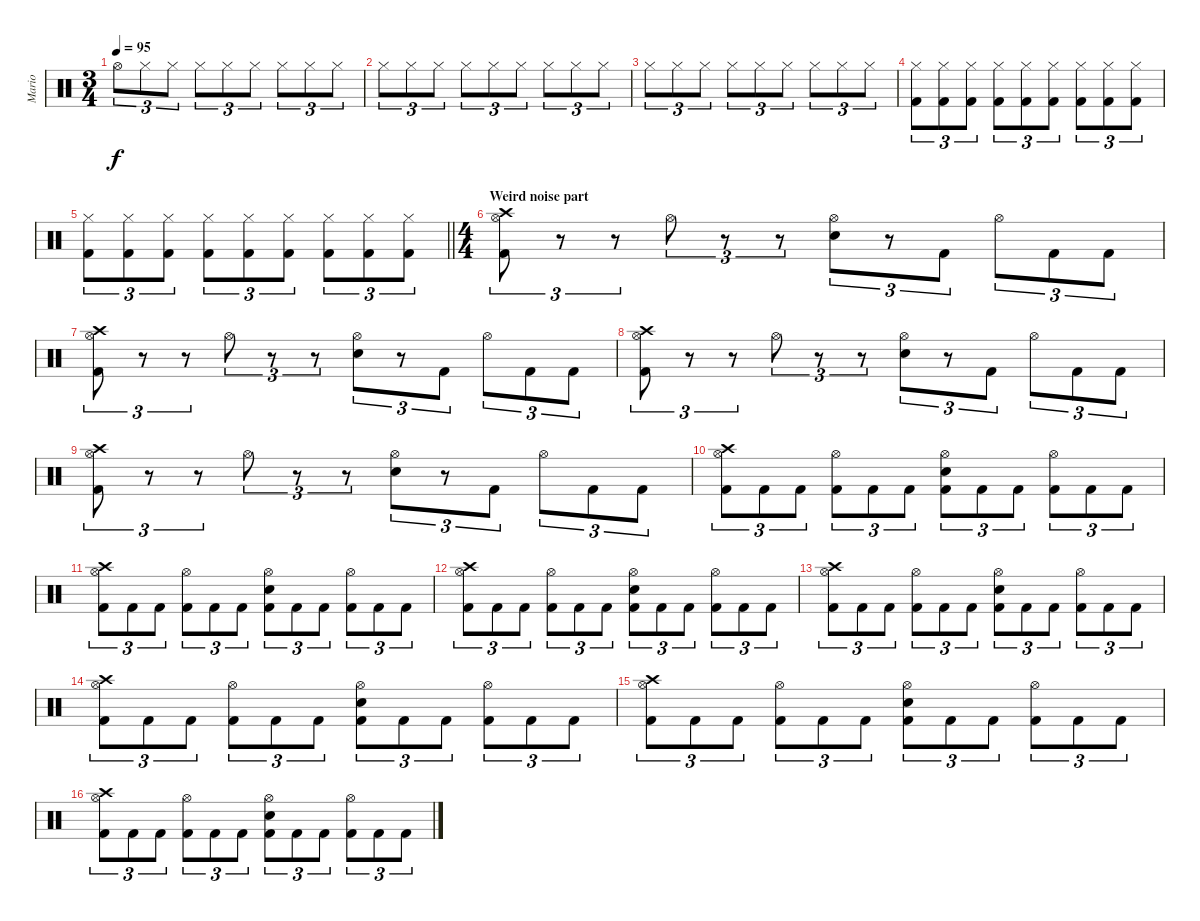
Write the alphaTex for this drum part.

\track ("Mario" "Mario") {instrument percussion}
\staff {score}
\articulation defaults
\ts (3 4)
\tempo 95
\clef neutral
\ks c "Hi-Hat (open)".8{tu (3 2) dy f} "Hi-Hat (closed)".8{tu (3 2)} "Hi-Hat (closed)".8{tu (3 2)} "Hi-Hat (closed)".8{tu (3 2)} "Hi-Hat (closed)".8{tu (3 2)} "Hi-Hat (closed)".8{tu (3 2)} "Hi-Hat (closed)".8{tu (3 2)} "Hi-Hat (closed)".8{tu (3 2)} "Hi-Hat (closed)".8{tu (3 2)}
|
"Hi-Hat (closed)".8{tu (3 2)} "Hi-Hat (closed)".8{tu (3 2)} "Hi-Hat (closed)".8{tu (3 2)} "Hi-Hat (closed)".8{tu (3 2)} "Hi-Hat (closed)".8{tu (3 2)} "Hi-Hat (closed)".8{tu (3 2)} "Hi-Hat (closed)".8{tu (3 2)} "Hi-Hat (closed)".8{tu (3 2)} "Hi-Hat (closed)".8{tu (3 2)} |
"Hi-Hat (closed)".8{tu (3 2)} "Hi-Hat (closed)".8{tu (3 2)} "Hi-Hat (closed)".8{tu (3 2)} "Hi-Hat (closed)".8{tu (3 2)} "Hi-Hat (closed)".8{tu (3 2)} "Hi-Hat (closed)".8{tu (3 2)} "Hi-Hat (closed)".8{tu (3 2)} "Hi-Hat (closed)".8{tu (3 2)} "Hi-Hat (closed)".8{tu (3 2)} |
("Hi-Hat (closed)" "Kick (hit) 2").8{tu (3 2)} ("Hi-Hat (closed)" "Kick (hit) 2").8{tu (3 2)} ("Hi-Hat (closed)" "Kick (hit) 2").8{tu (3 2)} ("Hi-Hat (closed)" "Kick (hit) 2").8{tu (3 2)} ("Hi-Hat (closed)" "Kick (hit) 2").8{tu (3 2)} ("Hi-Hat (closed)" "Kick (hit) 2").8{tu (3 2)} ("Hi-Hat (closed)" "Kick (hit) 2").8{tu (3 2)} ("Hi-Hat (closed)" "Kick (hit) 2").8{tu (3 2)} ("Hi-Hat (closed)" "Kick (hit) 2").8{tu (3 2)} |
\barLineRight lightlight
("Hi-Hat (closed)" "Kick (hit) 2").8{tu (3 2)} ("Hi-Hat (closed)" "Kick (hit) 2").8{tu (3 2)} ("Hi-Hat (closed)" "Kick (hit) 2").8{tu (3 2)} ("Hi-Hat (closed)" "Kick (hit) 2").8{tu (3 2)} ("Hi-Hat (closed)" "Kick (hit) 2").8{tu (3 2)} ("Hi-Hat (closed)" "Kick (hit) 2").8{tu (3 2)} ("Hi-Hat (closed)" "Kick (hit) 2").8{tu (3 2)} ("Hi-Hat (closed)" "Kick (hit) 2").8{tu (3 2)} ("Hi-Hat (closed)" "Kick (hit) 2").8{tu (3 2)} |
\ts (4 4)
\section ("" "Weird noise part")
("Crash high (hit)" "Hi-Hat (open)" "Kick (hit) 2").8{tu (3 2)} r.8{tu (3 2)} r.8{tu (3 2)} "Hi-Hat (open)".8{tu (3 2)} r.8{tu (3 2)} r.8{tu (3 2)} ("Hi-Hat (open)" "Electric Snare (hit)").8{tu (3 2)} r.8{tu (3 2)} "Kick (hit) 2".8{tu (3 2)} "Hi-Hat (open)".8{tu (3 2)} "Kick (hit) 2".8{tu (3 2)} "Kick (hit) 2".8{tu (3 2)} |
("Crash high (hit)" "Hi-Hat (open)" "Kick (hit) 2").8{tu (3 2)} r.8{tu (3 2)} r.8{tu (3 2)} "Hi-Hat (open)".8{tu (3 2)} r.8{tu (3 2)} r.8{tu (3 2)} ("Hi-Hat (open)" "Electric Snare (hit)").8{tu (3 2)} r.8{tu (3 2)} "Kick (hit) 2".8{tu (3 2)} "Hi-Hat (open)".8{tu (3 2)} "Kick (hit) 2".8{tu (3 2)} "Kick (hit) 2".8{tu (3 2)} |
("Crash high (hit)" "Hi-Hat (open)" "Kick (hit) 2").8{tu (3 2)} r.8{tu (3 2)} r.8{tu (3 2)} "Hi-Hat (open)".8{tu (3 2)} r.8{tu (3 2)} r.8{tu (3 2)} ("Hi-Hat (open)" "Electric Snare (hit)").8{tu (3 2)} r.8{tu (3 2)} "Kick (hit) 2".8{tu (3 2)} "Hi-Hat (open)".8{tu (3 2)} "Kick (hit) 2".8{tu (3 2)} "Kick (hit) 2".8{tu (3 2)} |
("Crash high (hit)" "Hi-Hat (open)" "Kick (hit) 2").8{tu (3 2)} r.8{tu (3 2)} r.8{tu (3 2)} "Hi-Hat (open)".8{tu (3 2)} r.8{tu (3 2)} r.8{tu (3 2)} ("Hi-Hat (open)" "Electric Snare (hit)").8{tu (3 2)} r.8{tu (3 2)} "Kick (hit) 2".8{tu (3 2)} "Hi-Hat (open)".8{tu (3 2)} "Kick (hit) 2".8{tu (3 2)} "Kick (hit) 2".8{tu (3 2)} |
("Crash high (hit)" "Hi-Hat (open)" "Kick (hit) 2").8{tu (3 2)} "Kick (hit) 2".8{tu (3 2)} "Kick (hit) 2".8{tu (3 2)} ("Hi-Hat (open)" "Kick (hit) 2").8{tu (3 2)} "Kick (hit) 2".8{tu (3 2)} "Kick (hit) 2".8{tu (3 2)} ("Hi-Hat (open)" "Electric Snare (hit)" "Kick (hit) 2").8{tu (3 2)} "Kick (hit) 2".8{tu (3 2)} "Kick (hit) 2".8{tu (3 2)} ("Hi-Hat (open)" "Kick (hit) 2").8{tu (3 2)} "Kick (hit) 2".8{tu (3 2)} "Kick (hit) 2".8{tu (3 2)} |
("Crash high (hit)" "Hi-Hat (open)" "Kick (hit) 2").8{tu (3 2)} "Kick (hit) 2".8{tu (3 2)} "Kick (hit) 2".8{tu (3 2)} ("Hi-Hat (open)" "Kick (hit) 2").8{tu (3 2)} "Kick (hit) 2".8{tu (3 2)} "Kick (hit) 2".8{tu (3 2)} ("Hi-Hat (open)" "Electric Snare (hit)" "Kick (hit) 2").8{tu (3 2)} "Kick (hit) 2".8{tu (3 2)} "Kick (hit) 2".8{tu (3 2)} ("Hi-Hat (open)" "Kick (hit) 2").8{tu (3 2)} "Kick (hit) 2".8{tu (3 2)} "Kick (hit) 2".8{tu (3 2)} |
("Crash high (hit)" "Hi-Hat (open)" "Kick (hit) 2").8{tu (3 2)} "Kick (hit) 2".8{tu (3 2)} "Kick (hit) 2".8{tu (3 2)} ("Hi-Hat (open)" "Kick (hit) 2").8{tu (3 2)} "Kick (hit) 2".8{tu (3 2)} "Kick (hit) 2".8{tu (3 2)} ("Hi-Hat (open)" "Electric Snare (hit)" "Kick (hit) 2").8{tu (3 2)} "Kick (hit) 2".8{tu (3 2)} "Kick (hit) 2".8{tu (3 2)} ("Hi-Hat (open)" "Kick (hit) 2").8{tu (3 2)} "Kick (hit) 2".8{tu (3 2)} "Kick (hit) 2".8{tu (3 2)} |
("Crash high (hit)" "Hi-Hat (open)" "Kick (hit) 2").8{tu (3 2)} "Kick (hit) 2".8{tu (3 2)} "Kick (hit) 2".8{tu (3 2)} ("Hi-Hat (open)" "Kick (hit) 2").8{tu (3 2)} "Kick (hit) 2".8{tu (3 2)} "Kick (hit) 2".8{tu (3 2)} ("Hi-Hat (open)" "Electric Snare (hit)" "Kick (hit) 2").8{tu (3 2)} "Kick (hit) 2".8{tu (3 2)} "Kick (hit) 2".8{tu (3 2)} ("Hi-Hat (open)" "Kick (hit) 2").8{tu (3 2)} "Kick (hit) 2".8{tu (3 2)} "Kick (hit) 2".8{tu (3 2)} |
("Crash high (hit)" "Hi-Hat (open)" "Kick (hit) 2").8{tu (3 2)} "Kick (hit) 2".8{tu (3 2)} "Kick (hit) 2".8{tu (3 2)} ("Hi-Hat (open)" "Kick (hit) 2").8{tu (3 2)} "Kick (hit) 2".8{tu (3 2)} "Kick (hit) 2".8{tu (3 2)} ("Hi-Hat (open)" "Electric Snare (hit)" "Kick (hit) 2").8{tu (3 2)} "Kick (hit) 2".8{tu (3 2)} "Kick (hit) 2".8{tu (3 2)} ("Hi-Hat (open)" "Kick (hit) 2").8{tu (3 2)} "Kick (hit) 2".8{tu (3 2)} "Kick (hit) 2".8{tu (3 2)} |
("Crash high (hit)" "Hi-Hat (open)" "Kick (hit) 2").8{tu (3 2)} "Kick (hit) 2".8{tu (3 2)} "Kick (hit) 2".8{tu (3 2)} ("Hi-Hat (open)" "Kick (hit) 2").8{tu (3 2)} "Kick (hit) 2".8{tu (3 2)} "Kick (hit) 2".8{tu (3 2)} ("Hi-Hat (open)" "Electric Snare (hit)" "Kick (hit) 2").8{tu (3 2)} "Kick (hit) 2".8{tu (3 2)} "Kick (hit) 2".8{tu (3 2)} ("Hi-Hat (open)" "Kick (hit) 2").8{tu (3 2)} "Kick (hit) 2".8{tu (3 2)} "Kick (hit) 2".8{tu (3 2)} |
("Crash high (hit)" "Hi-Hat (open)" "Kick (hit) 2").8{tu (3 2)} "Kick (hit) 2".8{tu (3 2)} "Kick (hit) 2".8{tu (3 2)} ("Hi-Hat (open)" "Kick (hit) 2").8{tu (3 2)} "Kick (hit) 2".8{tu (3 2)} "Kick (hit) 2".8{tu (3 2)} ("Hi-Hat (open)" "Electric Snare (hit)" "Kick (hit) 2").8{tu (3 2)} "Kick (hit) 2".8{tu (3 2)} "Kick (hit) 2".8{tu (3 2)} ("Hi-Hat (open)" "Kick (hit) 2").8{tu (3 2)} "Kick (hit) 2".8{tu (3 2)} "Kick (hit) 2".8{tu (3 2)}
